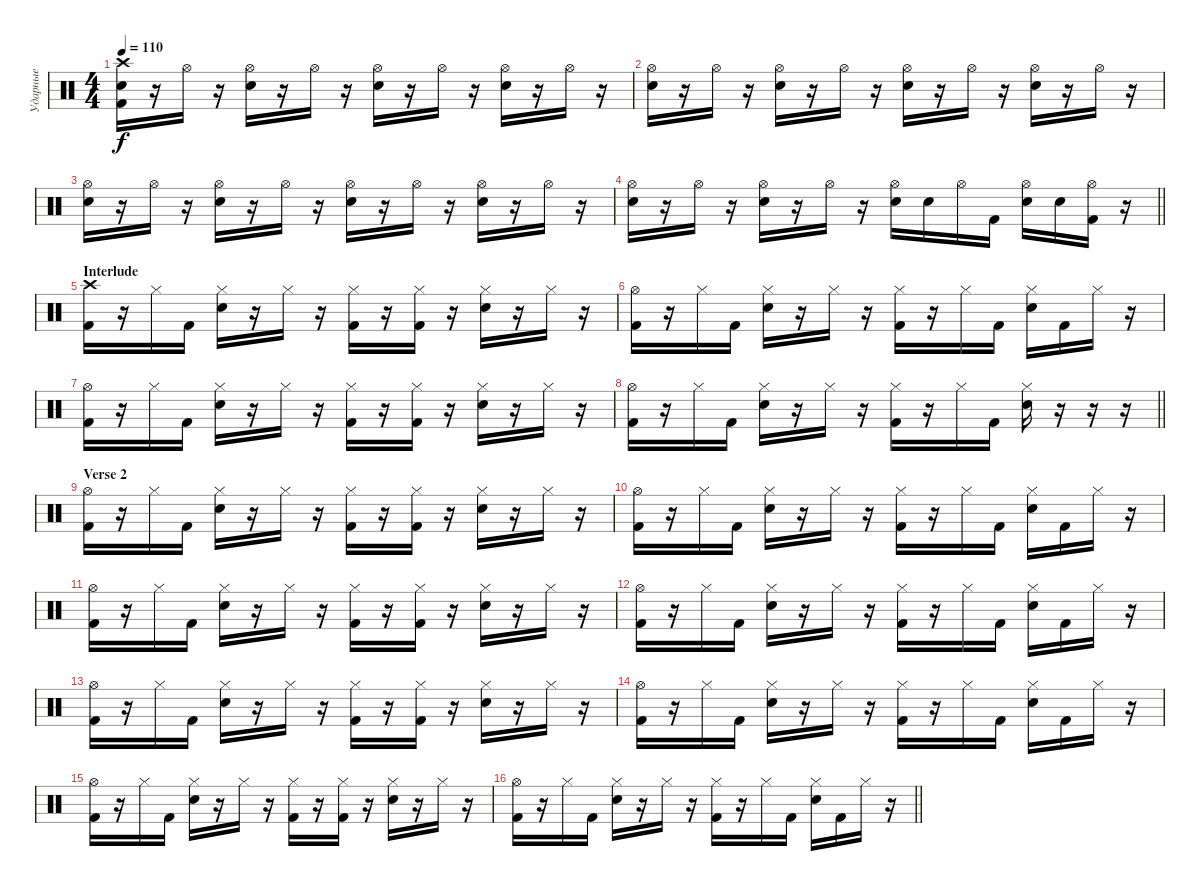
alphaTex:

\track ("Ударные" "Ударные") {instrument percussion}
\staff {score}
\articulation defaults
\ts (4 4)
\tempo 110
\clef neutral
\ks c
("Crash high (hit)" "Electric Snare (hit)" "Kick (hit) 2").16{dy f} r.16 "Hi-Hat (open)".16 r.16 ("Hi-Hat (open)" "Electric Snare (hit)").16 r.16 "Hi-Hat (open)".16 r.16 ("Hi-Hat (open)" "Electric Snare (hit)").16 r.16 "Hi-Hat (open)".16 r.16 ("Hi-Hat (open)" "Electric Snare (hit)").16 r.16 "Hi-Hat (open)".16 r.16 |
("Hi-Hat (open)" "Electric Snare (hit)").16 r.16 "Hi-Hat (open)".16 r.16 ("Hi-Hat (open)" "Electric Snare (hit)").16 r.16 "Hi-Hat (open)".16 r.16 ("Hi-Hat (open)" "Electric Snare (hit)").16 r.16 "Hi-Hat (open)".16 r.16 ("Hi-Hat (open)" "Electric Snare (hit)").16 r.16 "Hi-Hat (open)".16 r.16 |
("Hi-Hat (open)" "Electric Snare (hit)").16 r.16 "Hi-Hat (open)".16 r.16 ("Hi-Hat (open)" "Electric Snare (hit)").16 r.16 "Hi-Hat (open)".16 r.16 ("Hi-Hat (open)" "Electric Snare (hit)").16 r.16 "Hi-Hat (open)".16 r.16 ("Hi-Hat (open)" "Electric Snare (hit)").16 r.16 "Hi-Hat (open)".16 r.16 |
\barLineRight lightlight
("Hi-Hat (open)" "Electric Snare (hit)").16 r.16 "Hi-Hat (open)".16 r.16 ("Hi-Hat (open)" "Electric Snare (hit)").16 r.16 "Hi-Hat (open)".16 r.16 ("Hi-Hat (open)" "Electric Snare (hit)").16 "Electric Snare (hit)".16 "Hi-Hat (open)".16 "Kick (hit) 2".16 ("Hi-Hat (open)" "Electric Snare (hit)").16 "Electric Snare (hit)".16 ("Hi-Hat (open)" "Kick (hit) 2").16 r.16 |
\section ("" "Interlude")
("Crash high (hit)" "Kick (hit) 2").16 r.16 "Hi-Hat (closed)".16 "Kick (hit) 2".16 ("Hi-Hat (closed)" "Electric Snare (hit)").16 r.16 "Hi-Hat (closed)".16 r.16 ("Hi-Hat (closed)" "Kick (hit) 2").16 r.16 ("Hi-Hat (closed)" "Kick (hit) 2").16 r.16 ("Hi-Hat (closed)" "Electric Snare (hit)").16 r.16 "Hi-Hat (closed)".16 r.16 |
("Hi-Hat (open)" "Kick (hit) 2").16 r.16 "Hi-Hat (closed)".16 "Kick (hit) 2".16 ("Hi-Hat (closed)" "Electric Snare (hit)").16 r.16 "Hi-Hat (closed)".16 r.16 ("Hi-Hat (closed)" "Kick (hit) 2").16 r.16 "Hi-Hat (closed)".16 "Kick (hit) 2".16 ("Hi-Hat (closed)" "Electric Snare (hit)").16 "Kick (hit) 2".16 "Hi-Hat (closed)".16 r.16 |
("Hi-Hat (open)" "Kick (hit) 2").16 r.16 "Hi-Hat (closed)".16 "Kick (hit) 2".16 ("Hi-Hat (closed)" "Electric Snare (hit)").16 r.16 "Hi-Hat (closed)".16 r.16 ("Hi-Hat (closed)" "Kick (hit) 2").16 r.16 ("Hi-Hat (closed)" "Kick (hit) 2").16 r.16 ("Hi-Hat (closed)" "Electric Snare (hit)").16 r.16 "Hi-Hat (closed)".16 r.16 |
\barLineRight lightlight
("Hi-Hat (open)" "Kick (hit) 2").16 r.16 "Hi-Hat (closed)".16 "Kick (hit) 2".16 ("Hi-Hat (closed)" "Electric Snare (hit)").16 r.16 "Hi-Hat (closed)".16 r.16 ("Hi-Hat (closed)" "Kick (hit) 2").16 r.16 "Hi-Hat (closed)".16 "Kick (hit) 2".16 ("Hi-Hat (closed)" "Electric Snare (hit)").16 r.16 r.16 r.16 |
\section ("" "Verse 2")
("Hi-Hat (open)" "Kick (hit) 2").16 r.16 "Hi-Hat (closed)".16 "Kick (hit) 2".16 ("Hi-Hat (closed)" "Electric Snare (hit)").16 r.16 "Hi-Hat (closed)".16 r.16 ("Hi-Hat (closed)" "Kick (hit) 2").16 r.16 ("Hi-Hat (closed)" "Kick (hit) 2").16 r.16 ("Hi-Hat (closed)" "Electric Snare (hit)").16 r.16 "Hi-Hat (closed)".16 r.16 |
("Hi-Hat (open)" "Kick (hit) 2").16 r.16 "Hi-Hat (closed)".16 "Kick (hit) 2".16 ("Hi-Hat (closed)" "Electric Snare (hit)").16 r.16 "Hi-Hat (closed)".16 r.16 ("Hi-Hat (closed)" "Kick (hit) 2").16 r.16 "Hi-Hat (closed)".16 "Kick (hit) 2".16 ("Hi-Hat (closed)" "Electric Snare (hit)").16 "Kick (hit) 2".16 "Hi-Hat (closed)".16 r.16 |
("Hi-Hat (open)" "Kick (hit) 2").16 r.16 "Hi-Hat (closed)".16 "Kick (hit) 2".16 ("Hi-Hat (closed)" "Electric Snare (hit)").16 r.16 "Hi-Hat (closed)".16 r.16 ("Hi-Hat (closed)" "Kick (hit) 2").16 r.16 ("Hi-Hat (closed)" "Kick (hit) 2").16 r.16 ("Hi-Hat (closed)" "Electric Snare (hit)").16 r.16 "Hi-Hat (closed)".16 r.16 |
("Hi-Hat (open)" "Kick (hit) 2").16 r.16 "Hi-Hat (closed)".16 "Kick (hit) 2".16 ("Hi-Hat (closed)" "Electric Snare (hit)").16 r.16 "Hi-Hat (closed)".16 r.16 ("Hi-Hat (closed)" "Kick (hit) 2").16 r.16 "Hi-Hat (closed)".16 "Kick (hit) 2".16 ("Hi-Hat (closed)" "Electric Snare (hit)").16 "Kick (hit) 2".16 "Hi-Hat (closed)".16 r.16 |
("Hi-Hat (open)" "Kick (hit) 2").16 r.16 "Hi-Hat (closed)".16 "Kick (hit) 2".16 ("Hi-Hat (closed)" "Electric Snare (hit)").16 r.16 "Hi-Hat (closed)".16 r.16 ("Hi-Hat (closed)" "Kick (hit) 2").16 r.16 ("Hi-Hat (closed)" "Kick (hit) 2").16 r.16 ("Hi-Hat (closed)" "Electric Snare (hit)").16 r.16 "Hi-Hat (closed)".16 r.16 |
("Hi-Hat (open)" "Kick (hit) 2").16 r.16 "Hi-Hat (closed)".16 "Kick (hit) 2".16 ("Hi-Hat (closed)" "Electric Snare (hit)").16 r.16 "Hi-Hat (closed)".16 r.16 ("Hi-Hat (closed)" "Kick (hit) 2").16 r.16 "Hi-Hat (closed)".16 "Kick (hit) 2".16 ("Hi-Hat (closed)" "Electric Snare (hit)").16 "Kick (hit) 2".16 "Hi-Hat (closed)".16 r.16 |
("Hi-Hat (open)" "Kick (hit) 2").16 r.16 "Hi-Hat (closed)".16 "Kick (hit) 2".16 ("Hi-Hat (closed)" "Electric Snare (hit)").16 r.16 "Hi-Hat (closed)".16 r.16 ("Hi-Hat (closed)" "Kick (hit) 2").16 r.16 ("Hi-Hat (closed)" "Kick (hit) 2").16 r.16 ("Hi-Hat (closed)" "Electric Snare (hit)").16 r.16 "Hi-Hat (closed)".16 r.16 |
\barLineRight lightlight
("Hi-Hat (open)" "Kick (hit) 2").16 r.16 "Hi-Hat (closed)".16 "Kick (hit) 2".16 ("Hi-Hat (closed)" "Electric Snare (hit)").16 r.16 "Hi-Hat (closed)".16 r.16 ("Hi-Hat (closed)" "Kick (hit) 2").16 r.16 "Hi-Hat (closed)".16 "Kick (hit) 2".16 ("Hi-Hat (closed)" "Electric Snare (hit)").16 "Kick (hit) 2".16 "Hi-Hat (closed)".16 r.16
